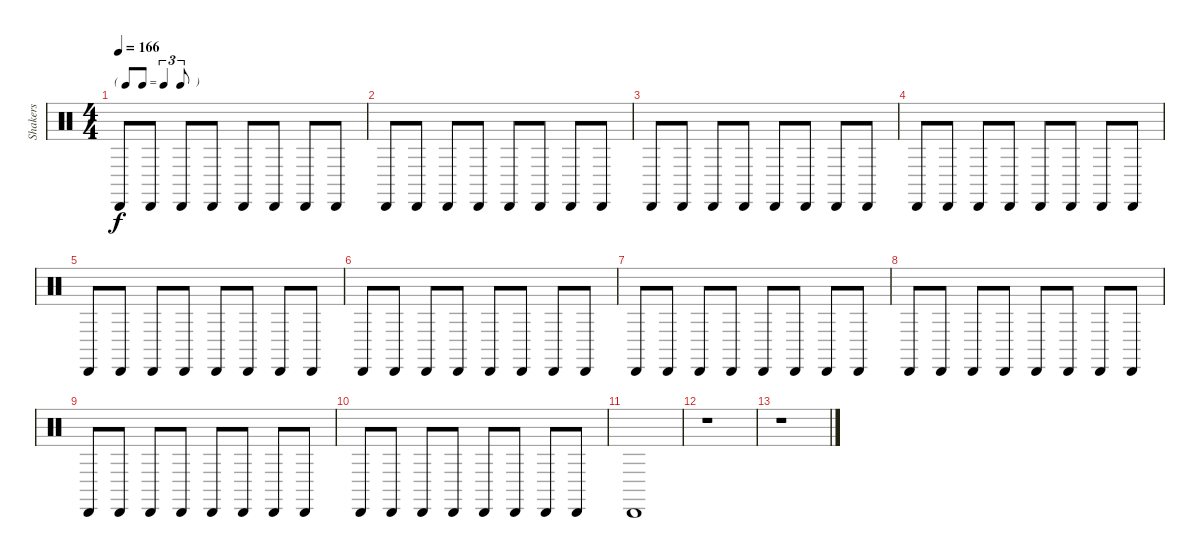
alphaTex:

\track ("Shakers" "Shakers") {instrument percussion}
\staff {score}
\articulation defaults
\ts (4 4)
\tf triplet8th
\tempo 166
\clef neutral
\ks c "Cabasa (hit)".8{dy f} "Cabasa (hit)".8 "Cabasa (hit)".8 "Cabasa (hit)".8 "Cabasa (hit)".8 "Cabasa (hit)".8 "Cabasa (hit)".8 "Cabasa (hit)".8
|
"Cabasa (hit)".8 "Cabasa (hit)".8 "Cabasa (hit)".8 "Cabasa (hit)".8 "Cabasa (hit)".8 "Cabasa (hit)".8 "Cabasa (hit)".8 "Cabasa (hit)".8 |
"Cabasa (hit)".8 "Cabasa (hit)".8 "Cabasa (hit)".8 "Cabasa (hit)".8 "Cabasa (hit)".8 "Cabasa (hit)".8 "Cabasa (hit)".8 "Cabasa (hit)".8 |
"Cabasa (hit)".8 "Cabasa (hit)".8 "Cabasa (hit)".8 "Cabasa (hit)".8 "Cabasa (hit)".8 "Cabasa (hit)".8 "Cabasa (hit)".8 "Cabasa (hit)".8 |
"Cabasa (hit)".8 "Cabasa (hit)".8 "Cabasa (hit)".8 "Cabasa (hit)".8 "Cabasa (hit)".8 "Cabasa (hit)".8 "Cabasa (hit)".8 "Cabasa (hit)".8 |
"Cabasa (hit)".8 "Cabasa (hit)".8 "Cabasa (hit)".8 "Cabasa (hit)".8 "Cabasa (hit)".8 "Cabasa (hit)".8 "Cabasa (hit)".8 "Cabasa (hit)".8 |
"Cabasa (hit)".8 "Cabasa (hit)".8 "Cabasa (hit)".8 "Cabasa (hit)".8 "Cabasa (hit)".8 "Cabasa (hit)".8 "Cabasa (hit)".8 "Cabasa (hit)".8 |
"Cabasa (hit)".8 "Cabasa (hit)".8 "Cabasa (hit)".8 "Cabasa (hit)".8 "Cabasa (hit)".8 "Cabasa (hit)".8 "Cabasa (hit)".8 "Cabasa (hit)".8 |
"Cabasa (hit)".8 "Cabasa (hit)".8 "Cabasa (hit)".8 "Cabasa (hit)".8 "Cabasa (hit)".8 "Cabasa (hit)".8 "Cabasa (hit)".8 "Cabasa (hit)".8 |
"Cabasa (hit)".8 "Cabasa (hit)".8 "Cabasa (hit)".8 "Cabasa (hit)".8 "Cabasa (hit)".8 "Cabasa (hit)".8 "Cabasa (hit)".8 "Cabasa (hit)".8 |
"Cabasa (hit)".1 |
r.1 |
r.1
